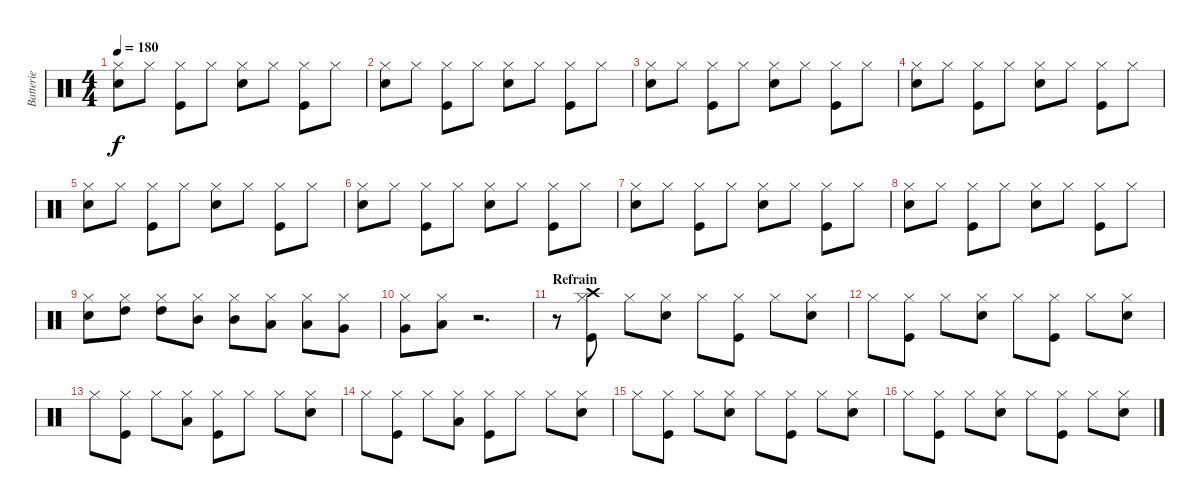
\track ("Batterie" "Batterie") {instrument percussion}
\staff {score}
\articulation defaults
\ts (4 4)
\tempo 180
\clef neutral
\ks c
("Hi-Hat (closed)" "Snare (hit) 2").8{dy f} "Hi-Hat (closed)".8 ("Hi-Hat (closed)" "Kick (hit)").8 "Hi-Hat (closed)".8 ("Hi-Hat (closed)" "Snare (hit) 2").8 "Hi-Hat (closed)".8 ("Hi-Hat (closed)" "Kick (hit)").8 "Hi-Hat (closed)".8 |
("Hi-Hat (closed)" "Snare (hit) 2").8 "Hi-Hat (closed)".8 ("Hi-Hat (closed)" "Kick (hit)").8 "Hi-Hat (closed)".8 ("Hi-Hat (closed)" "Snare (hit) 2").8 "Hi-Hat (closed)".8 ("Hi-Hat (closed)" "Kick (hit)").8 "Hi-Hat (closed)".8 |
("Hi-Hat (closed)" "Snare (hit) 2").8 "Hi-Hat (closed)".8 ("Hi-Hat (closed)" "Kick (hit)").8 "Hi-Hat (closed)".8 ("Hi-Hat (closed)" "Snare (hit) 2").8 "Hi-Hat (closed)".8 ("Hi-Hat (closed)" "Kick (hit)").8 "Hi-Hat (closed)".8 |
("Hi-Hat (closed)" "Snare (hit) 2").8 "Hi-Hat (closed)".8 ("Hi-Hat (closed)" "Kick (hit)").8 "Hi-Hat (closed)".8 ("Hi-Hat (closed)" "Snare (hit) 2").8 "Hi-Hat (closed)".8 ("Hi-Hat (closed)" "Kick (hit)").8 "Hi-Hat (closed)".8 |
("Hi-Hat (closed)" "Snare (hit) 2").8 "Hi-Hat (closed)".8 ("Hi-Hat (closed)" "Kick (hit)").8 "Hi-Hat (closed)".8 ("Hi-Hat (closed)" "Snare (hit) 2").8 "Hi-Hat (closed)".8 ("Hi-Hat (closed)" "Kick (hit)").8 "Hi-Hat (closed)".8 |
("Hi-Hat (closed)" "Snare (hit) 2").8 "Hi-Hat (closed)".8 ("Hi-Hat (closed)" "Kick (hit)").8 "Hi-Hat (closed)".8 ("Hi-Hat (closed)" "Snare (hit) 2").8 "Hi-Hat (closed)".8 ("Hi-Hat (closed)" "Kick (hit)").8 "Hi-Hat (closed)".8 |
("Hi-Hat (closed)" "Snare (hit) 2").8 "Hi-Hat (closed)".8 ("Hi-Hat (closed)" "Kick (hit)").8 "Hi-Hat (closed)".8 ("Hi-Hat (closed)" "Snare (hit) 2").8 "Hi-Hat (closed)".8 ("Hi-Hat (closed)" "Kick (hit)").8 "Hi-Hat (closed)".8 |
("Hi-Hat (closed)" "Snare (hit) 2").8 "Hi-Hat (closed)".8 ("Hi-Hat (closed)" "Kick (hit)").8 "Hi-Hat (closed)".8 ("Hi-Hat (closed)" "Snare (hit) 2").8 "Hi-Hat (closed)".8 ("Hi-Hat (closed)" "Kick (hit)").8 "Hi-Hat (closed)".8 |
("Hi-Hat (closed)" "Snare (hit) 2").8 ("Hi-Hat (closed)" "High Tom (hit)").8 ("Hi-Hat (closed)" "High Tom (hit)").8 ("Hi-Hat (closed)" "Mid Tom (hit)").8 ("Hi-Hat (closed)" "Mid Tom (hit)").8 ("Hi-Hat (closed)" "Low Tom (hit)").8 ("Hi-Hat (closed)" "Low Tom (hit)").8 ("Hi-Hat (closed)" "Very Low Tom (hit)").8 |
("Hi-Hat (closed)" "Very Low Tom (hit)").8 ("Hi-Hat (closed)" "Low Floor Tom (hit)").8 r.2{d} |
\section ("" "Refrain")
r.8 ("Crash high (hit)" "Hi-Hat (closed)" "Kick (hit)").8 "Hi-Hat (closed)".8 ("Hi-Hat (closed)" "Snare (hit) 2").8 "Hi-Hat (closed)".8 ("Hi-Hat (closed)" "Kick (hit)").8 "Hi-Hat (closed)".8 ("Hi-Hat (closed)" "Snare (hit) 2").8 |
"Hi-Hat (closed)".8 ("Hi-Hat (closed)" "Kick (hit)").8 "Hi-Hat (closed)".8 ("Hi-Hat (closed)" "Snare (hit) 2").8 "Hi-Hat (closed)".8 ("Hi-Hat (closed)" "Kick (hit)").8 "Hi-Hat (closed)".8 ("Hi-Hat (closed)" "Snare (hit) 2").8 |
"Hi-Hat (closed)".8 ("Hi-Hat (closed)" "Kick (hit)").8 "Hi-Hat (closed)".8 ("Hi-Hat (closed)" "Low Tom (hit)").8 ("Hi-Hat (closed)" "Kick (hit)").8 "Hi-Hat (closed)".8 "Hi-Hat (closed)".8 ("Hi-Hat (closed)" "Snare (hit) 2").8 |
"Hi-Hat (closed)".8 ("Hi-Hat (closed)" "Kick (hit)").8 "Hi-Hat (closed)".8 ("Hi-Hat (closed)" "Low Tom (hit)").8 ("Hi-Hat (closed)" "Kick (hit)").8 "Hi-Hat (closed)".8 "Hi-Hat (closed)".8 ("Hi-Hat (closed)" "Snare (hit) 2").8 |
"Hi-Hat (closed)".8 ("Hi-Hat (closed)" "Kick (hit)").8 "Hi-Hat (closed)".8 ("Hi-Hat (closed)" "Snare (hit) 2").8 "Hi-Hat (closed)".8 ("Hi-Hat (closed)" "Kick (hit)").8 "Hi-Hat (closed)".8 ("Hi-Hat (closed)" "Snare (hit) 2").8 |
"Hi-Hat (closed)".8 ("Hi-Hat (closed)" "Kick (hit)").8 "Hi-Hat (closed)".8 ("Hi-Hat (closed)" "Snare (hit) 2").8 "Hi-Hat (closed)".8 ("Hi-Hat (closed)" "Kick (hit)").8 "Hi-Hat (closed)".8 ("Hi-Hat (closed)" "Snare (hit) 2").8
